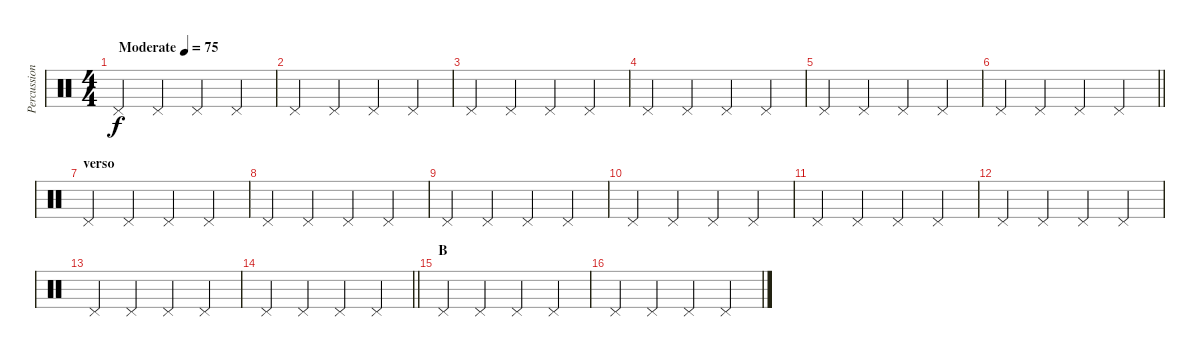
\track ("Percussion" "Percussion") {instrument percussion}
\staff {score}
\articulation defaults
\ts (4 4)
\tempo (75 "Moderate")
\clef neutral
\ks c "Pedal Hi-Hat (hit)".4{dy f} "Pedal Hi-Hat (hit)".4 "Pedal Hi-Hat (hit)".4 "Pedal Hi-Hat (hit)".4
|
"Pedal Hi-Hat (hit)".4 "Pedal Hi-Hat (hit)".4 "Pedal Hi-Hat (hit)".4 "Pedal Hi-Hat (hit)".4 |
"Pedal Hi-Hat (hit)".4 "Pedal Hi-Hat (hit)".4 "Pedal Hi-Hat (hit)".4 "Pedal Hi-Hat (hit)".4 |
"Pedal Hi-Hat (hit)".4 "Pedal Hi-Hat (hit)".4 "Pedal Hi-Hat (hit)".4 "Pedal Hi-Hat (hit)".4 |
"Pedal Hi-Hat (hit)".4 "Pedal Hi-Hat (hit)".4 "Pedal Hi-Hat (hit)".4 "Pedal Hi-Hat (hit)".4 |
\barLineRight lightlight "Pedal Hi-Hat (hit)".4 "Pedal Hi-Hat (hit)".4 "Pedal Hi-Hat (hit)".4 "Pedal Hi-Hat (hit)".4
|
\section ("" "verso")
"Pedal Hi-Hat (hit)".4 "Pedal Hi-Hat (hit)".4 "Pedal Hi-Hat (hit)".4 "Pedal Hi-Hat (hit)".4 |
"Pedal Hi-Hat (hit)".4 "Pedal Hi-Hat (hit)".4 "Pedal Hi-Hat (hit)".4 "Pedal Hi-Hat (hit)".4 |
"Pedal Hi-Hat (hit)".4 "Pedal Hi-Hat (hit)".4 "Pedal Hi-Hat (hit)".4 "Pedal Hi-Hat (hit)".4 |
"Pedal Hi-Hat (hit)".4 "Pedal Hi-Hat (hit)".4 "Pedal Hi-Hat (hit)".4 "Pedal Hi-Hat (hit)".4 |
"Pedal Hi-Hat (hit)".4 "Pedal Hi-Hat (hit)".4 "Pedal Hi-Hat (hit)".4 "Pedal Hi-Hat (hit)".4 |
"Pedal Hi-Hat (hit)".4 "Pedal Hi-Hat (hit)".4 "Pedal Hi-Hat (hit)".4 "Pedal Hi-Hat (hit)".4 |
"Pedal Hi-Hat (hit)".4 "Pedal Hi-Hat (hit)".4 "Pedal Hi-Hat (hit)".4 "Pedal Hi-Hat (hit)".4 |
\barLineRight lightlight "Pedal Hi-Hat (hit)".4 "Pedal Hi-Hat (hit)".4 "Pedal Hi-Hat (hit)".4 "Pedal Hi-Hat (hit)".4
|
\section ("" "B")
"Pedal Hi-Hat (hit)".4 "Pedal Hi-Hat (hit)".4 "Pedal Hi-Hat (hit)".4 "Pedal Hi-Hat (hit)".4 |
"Pedal Hi-Hat (hit)".4 "Pedal Hi-Hat (hit)".4 "Pedal Hi-Hat (hit)".4 "Pedal Hi-Hat (hit)".4
